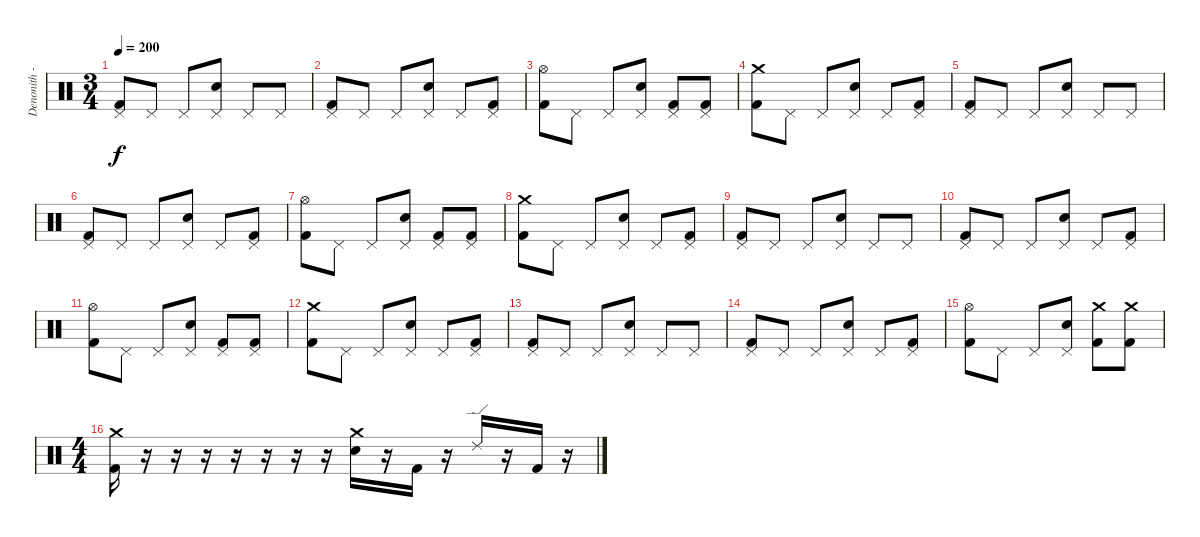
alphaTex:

\track ("Denonith - Spyros" "Denonith -") {instrument percussion}
\staff {score}
\articulation defaults
\ts (3 4)
\tempo 200
\clef neutral
\ks c
("Pedal Hi-Hat (hit)" "Kick (hit) 2").8{dy f} "Pedal Hi-Hat (hit)".8 "Pedal Hi-Hat (hit)".8 ("Pedal Hi-Hat (hit)" "Electric Snare (hit)").8 "Pedal Hi-Hat (hit)".8 "Pedal Hi-Hat (hit)".8 |
("Pedal Hi-Hat (hit)" "Kick (hit) 2").8 "Pedal Hi-Hat (hit)".8 "Pedal Hi-Hat (hit)".8 ("Pedal Hi-Hat (hit)" "Electric Snare (hit)").8 "Pedal Hi-Hat (hit)".8 ("Pedal Hi-Hat (hit)" "Kick (hit) 2").8 |
("Hi-Hat (open)" "Kick (hit) 2").8 "Pedal Hi-Hat (hit)".8 "Pedal Hi-Hat (hit)".8 ("Pedal Hi-Hat (hit)" "Electric Snare (hit)").8 ("Pedal Hi-Hat (hit)" "Kick (hit) 2").8 ("Pedal Hi-Hat (hit)" "Kick (hit) 2").8 |
("Crash medium (hit)" "Kick (hit) 2").8 "Pedal Hi-Hat (hit)".8 "Pedal Hi-Hat (hit)".8 ("Pedal Hi-Hat (hit)" "Electric Snare (hit)").8 "Pedal Hi-Hat (hit)".8 ("Pedal Hi-Hat (hit)" "Kick (hit) 2").8 |
("Pedal Hi-Hat (hit)" "Kick (hit) 2").8 "Pedal Hi-Hat (hit)".8 "Pedal Hi-Hat (hit)".8 ("Pedal Hi-Hat (hit)" "Electric Snare (hit)").8 "Pedal Hi-Hat (hit)".8 "Pedal Hi-Hat (hit)".8 |
("Pedal Hi-Hat (hit)" "Kick (hit) 2").8 "Pedal Hi-Hat (hit)".8 "Pedal Hi-Hat (hit)".8 ("Pedal Hi-Hat (hit)" "Electric Snare (hit)").8 "Pedal Hi-Hat (hit)".8 ("Pedal Hi-Hat (hit)" "Kick (hit) 2").8 |
("Hi-Hat (open)" "Kick (hit) 2").8 "Pedal Hi-Hat (hit)".8 "Pedal Hi-Hat (hit)".8 ("Pedal Hi-Hat (hit)" "Electric Snare (hit)").8 ("Pedal Hi-Hat (hit)" "Kick (hit) 2").8 ("Pedal Hi-Hat (hit)" "Kick (hit) 2").8 |
("Crash medium (hit)" "Kick (hit) 2").8 "Pedal Hi-Hat (hit)".8 "Pedal Hi-Hat (hit)".8 ("Pedal Hi-Hat (hit)" "Electric Snare (hit)").8 "Pedal Hi-Hat (hit)".8 ("Pedal Hi-Hat (hit)" "Kick (hit) 2").8 |
("Pedal Hi-Hat (hit)" "Kick (hit) 2").8 "Pedal Hi-Hat (hit)".8 "Pedal Hi-Hat (hit)".8 ("Pedal Hi-Hat (hit)" "Electric Snare (hit)").8 "Pedal Hi-Hat (hit)".8 "Pedal Hi-Hat (hit)".8 |
("Pedal Hi-Hat (hit)" "Kick (hit) 2").8 "Pedal Hi-Hat (hit)".8 "Pedal Hi-Hat (hit)".8 ("Pedal Hi-Hat (hit)" "Electric Snare (hit)").8 "Pedal Hi-Hat (hit)".8 ("Pedal Hi-Hat (hit)" "Kick (hit) 2").8 |
("Hi-Hat (open)" "Kick (hit) 2").8 "Pedal Hi-Hat (hit)".8 "Pedal Hi-Hat (hit)".8 ("Pedal Hi-Hat (hit)" "Electric Snare (hit)").8 ("Pedal Hi-Hat (hit)" "Kick (hit) 2").8 ("Pedal Hi-Hat (hit)" "Kick (hit) 2").8 |
("Crash medium (hit)" "Kick (hit) 2").8 "Pedal Hi-Hat (hit)".8 "Pedal Hi-Hat (hit)".8 ("Pedal Hi-Hat (hit)" "Electric Snare (hit)").8 "Pedal Hi-Hat (hit)".8 ("Pedal Hi-Hat (hit)" "Kick (hit) 2").8 |
("Pedal Hi-Hat (hit)" "Kick (hit) 2").8 "Pedal Hi-Hat (hit)".8 "Pedal Hi-Hat (hit)".8 ("Pedal Hi-Hat (hit)" "Electric Snare (hit)").8 "Pedal Hi-Hat (hit)".8 "Pedal Hi-Hat (hit)".8 |
("Pedal Hi-Hat (hit)" "Kick (hit) 2").8 "Pedal Hi-Hat (hit)".8 "Pedal Hi-Hat (hit)".8 ("Pedal Hi-Hat (hit)" "Electric Snare (hit)").8 "Pedal Hi-Hat (hit)".8 ("Pedal Hi-Hat (hit)" "Kick (hit) 2").8 |
("Hi-Hat (open)" "Kick (hit) 2").8 "Pedal Hi-Hat (hit)".8 "Pedal Hi-Hat (hit)".8 ("Pedal Hi-Hat (hit)" "Electric Snare (hit)").8 ("Crash medium (hit)" "Kick (hit) 2").8 ("Crash medium (hit)" "Kick (hit) 2").8 |
\ts (4 4)
("Crash medium (hit)" "Kick (hit) 2").16 r.16 r.16 r.16 r.16 r.16 r.16 r.16 ("Crash medium (hit)" "Electric Snare (hit)").16 r.16 "Kick (hit) 2".16 r.16 "Ride (edge) 2".16 r.16 "Kick (hit) 2".16 r.16
